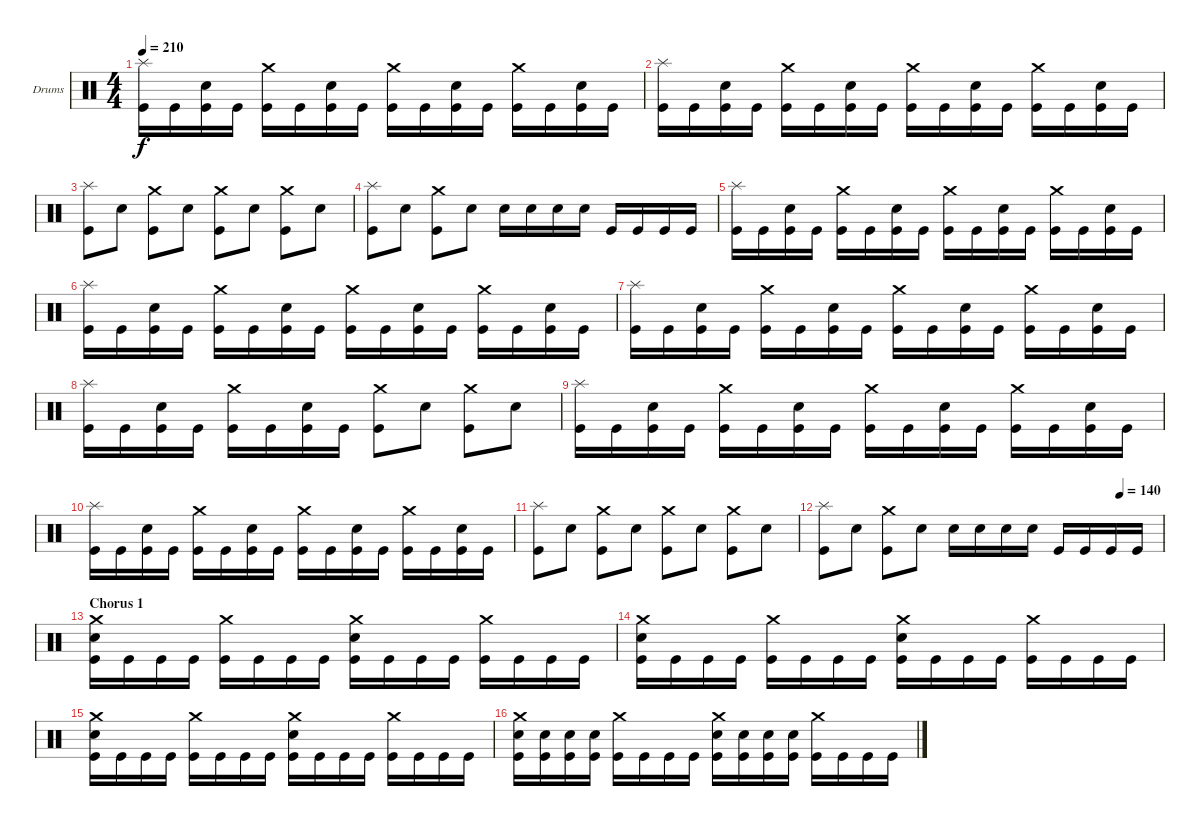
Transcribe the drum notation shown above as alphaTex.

\defaultSystemsLayout 4
\bracketExtendMode groupsimilarinstruments
\firstSystemTrackNameOrientation horizontal
\otherSystemsTrackNameOrientation horizontal
\track ("Ventor" "Drums") {instrument percussion}
\staff {score}
\articulation defaults
\ts (4 4)
\tempo 210
\clef neutral
\scale
0.5
\ks c
("Kick (hit)" "Splash (hit)").16{dy f} "Kick (hit)".16 ("Snare (hit) 2" "Kick (hit)").16 "Kick (hit)".16 ("Kick (hit)" "Crash medium (hit)").16 "Kick (hit)".16 ("Snare (hit) 2" "Kick (hit)").16 "Kick (hit)".16 ("Kick (hit)" "Crash medium (hit)").16 "Kick (hit)".16 ("Snare (hit) 2" "Kick (hit)").16 "Kick (hit)".16 ("Kick (hit)" "Crash medium (hit)").16 "Kick (hit)".16 ("Snare (hit) 2" "Kick (hit)").16 "Kick (hit)".16 |
\scale
0.5 ("Kick (hit)" "Splash (hit)").16 "Kick (hit)".16 ("Snare (hit) 2" "Kick (hit)").16 "Kick (hit)".16 ("Kick (hit)" "Crash medium (hit)").16 "Kick (hit)".16 ("Snare (hit) 2" "Kick (hit)").16 "Kick (hit)".16 ("Kick (hit)" "Crash medium (hit)").16 "Kick (hit)".16 ("Snare (hit) 2" "Kick (hit)").16 "Kick (hit)".16 ("Kick (hit)" "Crash medium (hit)").16 "Kick (hit)".16 ("Snare (hit) 2" "Kick (hit)").16 "Kick (hit)".16 |
\scale
0.5 ("Kick (hit)" "Splash (hit)").8 "Snare (hit) 2".8 ("Kick (hit)" "Crash medium (hit)").8 "Snare (hit) 2".8 ("Kick (hit)" "Crash medium (hit)").8 "Snare (hit) 2".8 ("Kick (hit)" "Crash medium (hit)").8 "Snare (hit) 2".8 |
\scale
0.5 ("Kick (hit)" "Splash (hit)").8 "Snare (hit) 2".8 ("Kick (hit)" "Crash medium (hit)").8 "Snare (hit) 2".8 "Snare (hit) 2".16 "Snare (hit) 2".16 "Snare (hit) 2".16 "Snare (hit) 2".16 "Kick (hit)".16 "Kick (hit)".16 "Kick (hit)".16 "Kick (hit)".16 |
\scale
0.5 ("Kick (hit)" "Splash (hit)").16 "Kick (hit)".16 ("Snare (hit) 2" "Kick (hit)").16 "Kick (hit)".16 ("Kick (hit)" "Crash medium (hit)").16 "Kick (hit)".16 ("Snare (hit) 2" "Kick (hit)").16 "Kick (hit)".16 ("Kick (hit)" "Crash medium (hit)").16 "Kick (hit)".16 ("Snare (hit) 2" "Kick (hit)").16 "Kick (hit)".16 ("Kick (hit)" "Crash medium (hit)").16 "Kick (hit)".16 ("Snare (hit) 2" "Kick (hit)").16 "Kick (hit)".16 |
\scale
0.5 ("Kick (hit)" "Splash (hit)").16 "Kick (hit)".16 ("Snare (hit) 2" "Kick (hit)").16 "Kick (hit)".16 ("Kick (hit)" "Crash medium (hit)").16 "Kick (hit)".16 ("Snare (hit) 2" "Kick (hit)").16 "Kick (hit)".16 ("Kick (hit)" "Crash medium (hit)").16 "Kick (hit)".16 ("Snare (hit) 2" "Kick (hit)").16 "Kick (hit)".16 ("Kick (hit)" "Crash medium (hit)").16 "Kick (hit)".16 ("Snare (hit) 2" "Kick (hit)").16 "Kick (hit)".16 |
\scale
0.5 ("Kick (hit)" "Splash (hit)").16 "Kick (hit)".16 ("Snare (hit) 2" "Kick (hit)").16 "Kick (hit)".16 ("Kick (hit)" "Crash medium (hit)").16 "Kick (hit)".16 ("Snare (hit) 2" "Kick (hit)").16 "Kick (hit)".16 ("Kick (hit)" "Crash medium (hit)").16 "Kick (hit)".16 ("Snare (hit) 2" "Kick (hit)").16 "Kick (hit)".16 ("Kick (hit)" "Crash medium (hit)").16 "Kick (hit)".16 ("Snare (hit) 2" "Kick (hit)").16 "Kick (hit)".16 |
\scale
0.5 ("Kick (hit)" "Splash (hit)").16 "Kick (hit)".16 ("Snare (hit) 2" "Kick (hit)").16 "Kick (hit)".16 ("Kick (hit)" "Crash medium (hit)").16 "Kick (hit)".16 ("Snare (hit) 2" "Kick (hit)").16 "Kick (hit)".16 ("Kick (hit)" "Crash medium (hit)").8 "Snare (hit) 2".8 ("Kick (hit)" "Crash medium (hit)").8 "Snare (hit) 2".8 |
\scale
0.5 ("Kick (hit)" "Splash (hit)").16 "Kick (hit)".16 ("Snare (hit) 2" "Kick (hit)").16 "Kick (hit)".16 ("Kick (hit)" "Crash medium (hit)").16 "Kick (hit)".16 ("Snare (hit) 2" "Kick (hit)").16 "Kick (hit)".16 ("Kick (hit)" "Crash medium (hit)").16 "Kick (hit)".16 ("Snare (hit) 2" "Kick (hit)").16 "Kick (hit)".16 ("Kick (hit)" "Crash medium (hit)").16 "Kick (hit)".16 ("Snare (hit) 2" "Kick (hit)").16 "Kick (hit)".16 |
\scale
0.5 ("Kick (hit)" "Splash (hit)").16 "Kick (hit)".16 ("Snare (hit) 2" "Kick (hit)").16 "Kick (hit)".16 ("Kick (hit)" "Crash medium (hit)").16 "Kick (hit)".16 ("Snare (hit) 2" "Kick (hit)").16 "Kick (hit)".16 ("Kick (hit)" "Crash medium (hit)").16 "Kick (hit)".16 ("Snare (hit) 2" "Kick (hit)").16 "Kick (hit)".16 ("Kick (hit)" "Crash medium (hit)").16 "Kick (hit)".16 ("Snare (hit) 2" "Kick (hit)").16 "Kick (hit)".16 |
\scale
0.5 ("Kick (hit)" "Splash (hit)").8 "Snare (hit) 2".8 ("Kick (hit)" "Crash medium (hit)").8 "Snare (hit) 2".8 ("Kick (hit)" "Crash medium (hit)").8 "Snare (hit) 2".8 ("Kick (hit)" "Crash medium (hit)").8 "Snare (hit) 2".8 |
\tempo (140 0.875)
\scale
0.5 ("Kick (hit)" "Splash (hit)").8 "Snare (hit) 2".8 ("Kick (hit)" "Crash medium (hit)").8 "Snare (hit) 2".8 "Snare (hit) 2".16 "Snare (hit) 2".16 "Snare (hit) 2".16 "Snare (hit) 2".16 "Kick (hit)".16 "Kick (hit)".16 "Kick (hit)".16 "Kick (hit)".16 |
\section ("" "Chorus 1")
\scale
0.5 ("Kick (hit)" "Snare (hit) 2" "Crash medium (hit)").16 "Kick (hit)".16 "Kick (hit)".16 "Kick (hit)".16 ("Kick (hit)" "Crash medium (hit)").16 "Kick (hit)".16 "Kick (hit)".16 "Kick (hit)".16 ("Kick (hit)" "Snare (hit) 2" "Crash medium (hit)").16 "Kick (hit)".16 "Kick (hit)".16 "Kick (hit)".16 ("Kick (hit)" "Crash medium (hit)").16 "Kick (hit)".16 "Kick (hit)".16 "Kick (hit)".16 |
\scale
0.5 ("Kick (hit)" "Snare (hit) 2" "Crash medium (hit)").16 "Kick (hit)".16 "Kick (hit)".16 "Kick (hit)".16 ("Kick (hit)" "Crash medium (hit)").16 "Kick (hit)".16 "Kick (hit)".16 "Kick (hit)".16 ("Kick (hit)" "Snare (hit) 2" "Crash medium (hit)").16 "Kick (hit)".16 "Kick (hit)".16 "Kick (hit)".16 ("Kick (hit)" "Crash medium (hit)").16 "Kick (hit)".16 "Kick (hit)".16 "Kick (hit)".16 |
\scale
0.5 ("Kick (hit)" "Snare (hit) 2" "Crash medium (hit)").16 "Kick (hit)".16 "Kick (hit)".16 "Kick (hit)".16 ("Kick (hit)" "Crash medium (hit)").16 "Kick (hit)".16 "Kick (hit)".16 "Kick (hit)".16 ("Kick (hit)" "Snare (hit) 2" "Crash medium (hit)").16 "Kick (hit)".16 "Kick (hit)".16 "Kick (hit)".16 ("Kick (hit)" "Crash medium (hit)").16 "Kick (hit)".16 "Kick (hit)".16 "Kick (hit)".16 |
\scale
0.5 ("Kick (hit)" "Snare (hit) 2" "Crash medium (hit)").16 ("Kick (hit)" "Snare (hit) 2").16 ("Kick (hit)" "Snare (hit) 2").16 ("Kick (hit)" "Snare (hit) 2").16 ("Kick (hit)" "Crash medium (hit)").16 "Kick (hit)".16 "Kick (hit)".16 "Kick (hit)".16 ("Kick (hit)" "Snare (hit) 2" "Crash medium (hit)").16 ("Kick (hit)" "Snare (hit) 2").16 ("Kick (hit)" "Snare (hit) 2").16 ("Kick (hit)" "Snare (hit) 2").16 ("Kick (hit)" "Crash medium (hit)").16 "Kick (hit)".16 "Kick (hit)".16 "Kick (hit)".16
